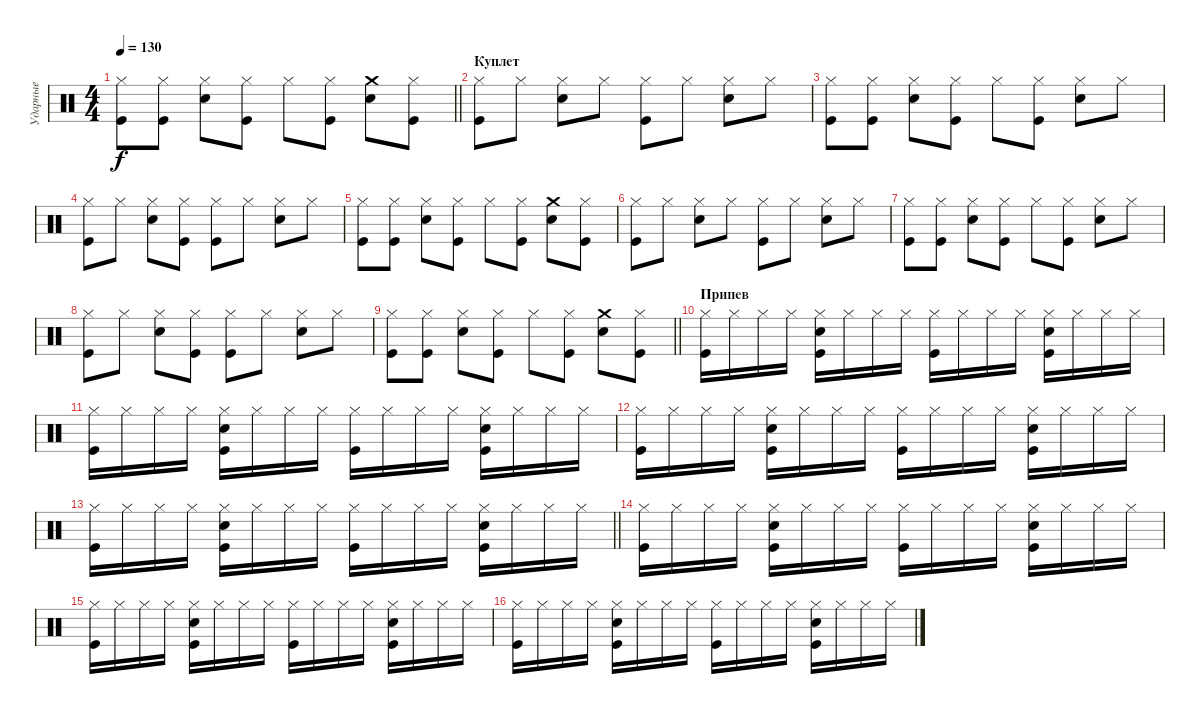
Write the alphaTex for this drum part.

\track ("Ударные" "Ударные") {instrument percussion}
\staff {score}
\articulation defaults
\ts (4 4)
\tempo 130
\clef neutral
\barLineRight lightlight
\ks c
("Hi-Hat (closed)" "Kick (hit)").8{dy f} ("Hi-Hat (closed)" "Kick (hit)").8 ("Hi-Hat (closed)" "Electric Snare (hit)").8 ("Hi-Hat (closed)" "Kick (hit)").8 "Hi-Hat (closed)".8 ("Hi-Hat (closed)" "Kick (hit)").8 ("Crash medium (hit)" "Electric Snare (hit)").8 ("Hi-Hat (closed)" "Kick (hit)").8 |
\section ("" "Куплет")
("Hi-Hat (closed)" "Kick (hit)").8 "Hi-Hat (closed)".8 ("Hi-Hat (closed)" "Electric Snare (hit)").8 "Hi-Hat (closed)".8 ("Hi-Hat (closed)" "Kick (hit)").8 "Hi-Hat (closed)".8 ("Hi-Hat (closed)" "Electric Snare (hit)").8 "Hi-Hat (closed)".8 |
("Hi-Hat (closed)" "Kick (hit)").8 ("Hi-Hat (closed)" "Kick (hit)").8 ("Hi-Hat (closed)" "Electric Snare (hit)").8 ("Hi-Hat (closed)" "Kick (hit)").8 "Hi-Hat (closed)".8 ("Hi-Hat (closed)" "Kick (hit)").8 ("Hi-Hat (closed)" "Electric Snare (hit)").8 "Hi-Hat (closed)".8 |
("Hi-Hat (closed)" "Kick (hit)").8 "Hi-Hat (closed)".8 ("Hi-Hat (closed)" "Electric Snare (hit)").8 ("Hi-Hat (closed)" "Kick (hit)").8 ("Hi-Hat (closed)" "Kick (hit)").8 "Hi-Hat (closed)".8 ("Hi-Hat (closed)" "Electric Snare (hit)").8 "Hi-Hat (closed)".8 |
("Hi-Hat (closed)" "Kick (hit)").8 ("Hi-Hat (closed)" "Kick (hit)").8 ("Hi-Hat (closed)" "Electric Snare (hit)").8 ("Hi-Hat (closed)" "Kick (hit)").8 "Hi-Hat (closed)".8 ("Hi-Hat (closed)" "Kick (hit)").8 ("Crash medium (hit)" "Electric Snare (hit)").8 ("Hi-Hat (closed)" "Kick (hit)").8 |
("Hi-Hat (closed)" "Kick (hit)").8 "Hi-Hat (closed)".8 ("Hi-Hat (closed)" "Electric Snare (hit)").8 "Hi-Hat (closed)".8 ("Hi-Hat (closed)" "Kick (hit)").8 "Hi-Hat (closed)".8 ("Hi-Hat (closed)" "Electric Snare (hit)").8 "Hi-Hat (closed)".8 |
("Hi-Hat (closed)" "Kick (hit)").8 ("Hi-Hat (closed)" "Kick (hit)").8 ("Hi-Hat (closed)" "Electric Snare (hit)").8 ("Hi-Hat (closed)" "Kick (hit)").8 "Hi-Hat (closed)".8 ("Hi-Hat (closed)" "Kick (hit)").8 ("Hi-Hat (closed)" "Electric Snare (hit)").8 "Hi-Hat (closed)".8 |
("Hi-Hat (closed)" "Kick (hit)").8 "Hi-Hat (closed)".8 ("Hi-Hat (closed)" "Electric Snare (hit)").8 ("Hi-Hat (closed)" "Kick (hit)").8 ("Hi-Hat (closed)" "Kick (hit)").8 "Hi-Hat (closed)".8 ("Hi-Hat (closed)" "Electric Snare (hit)").8 "Hi-Hat (closed)".8 |
\barLineRight lightlight
("Hi-Hat (closed)" "Kick (hit)").8 ("Hi-Hat (closed)" "Kick (hit)").8 ("Hi-Hat (closed)" "Electric Snare (hit)").8 ("Hi-Hat (closed)" "Kick (hit)").8 "Hi-Hat (closed)".8 ("Hi-Hat (closed)" "Kick (hit)").8 ("Crash medium (hit)" "Electric Snare (hit)").8 ("Hi-Hat (closed)" "Kick (hit)").8 |
\section ("" "Припев")
("Hi-Hat (closed)" "Kick (hit)").16 "Hi-Hat (closed)".16 "Hi-Hat (closed)".16 "Hi-Hat (closed)".16 ("Hi-Hat (closed)" "Kick (hit)" "Snare (hit) 2").16 "Hi-Hat (closed)".16 "Hi-Hat (closed)".16 "Hi-Hat (closed)".16 ("Hi-Hat (closed)" "Kick (hit)").16 "Hi-Hat (closed)".16 "Hi-Hat (closed)".16 "Hi-Hat (closed)".16 ("Hi-Hat (closed)" "Kick (hit)" "Snare (hit) 2").16 "Hi-Hat (closed)".16 "Hi-Hat (closed)".16 "Hi-Hat (closed)".16 |
("Hi-Hat (closed)" "Kick (hit)").16 "Hi-Hat (closed)".16 "Hi-Hat (closed)".16 "Hi-Hat (closed)".16 ("Hi-Hat (closed)" "Kick (hit)" "Snare (hit) 2").16 "Hi-Hat (closed)".16 "Hi-Hat (closed)".16 "Hi-Hat (closed)".16 ("Hi-Hat (closed)" "Kick (hit)").16 "Hi-Hat (closed)".16 "Hi-Hat (closed)".16 "Hi-Hat (closed)".16 ("Hi-Hat (closed)" "Kick (hit)" "Snare (hit) 2").16 "Hi-Hat (closed)".16 "Hi-Hat (closed)".16 "Hi-Hat (closed)".16 |
("Hi-Hat (closed)" "Kick (hit)").16 "Hi-Hat (closed)".16 "Hi-Hat (closed)".16 "Hi-Hat (closed)".16 ("Hi-Hat (closed)" "Kick (hit)" "Snare (hit) 2").16 "Hi-Hat (closed)".16 "Hi-Hat (closed)".16 "Hi-Hat (closed)".16 ("Hi-Hat (closed)" "Kick (hit)").16 "Hi-Hat (closed)".16 "Hi-Hat (closed)".16 "Hi-Hat (closed)".16 ("Hi-Hat (closed)" "Kick (hit)" "Snare (hit) 2").16 "Hi-Hat (closed)".16 "Hi-Hat (closed)".16 "Hi-Hat (closed)".16 |
\barLineRight lightlight
("Hi-Hat (closed)" "Kick (hit)").16 "Hi-Hat (closed)".16 "Hi-Hat (closed)".16 "Hi-Hat (closed)".16 ("Hi-Hat (closed)" "Kick (hit)" "Snare (hit) 2").16 "Hi-Hat (closed)".16 "Hi-Hat (closed)".16 "Hi-Hat (closed)".16 ("Hi-Hat (closed)" "Kick (hit)").16 "Hi-Hat (closed)".16 "Hi-Hat (closed)".16 "Hi-Hat (closed)".16 ("Hi-Hat (closed)" "Kick (hit)" "Snare (hit) 2").16 "Hi-Hat (closed)".16 "Hi-Hat (closed)".16 "Hi-Hat (closed)".16 |
("Hi-Hat (closed)" "Kick (hit)").16 "Hi-Hat (closed)".16 "Hi-Hat (closed)".16 "Hi-Hat (closed)".16 ("Hi-Hat (closed)" "Kick (hit)" "Snare (hit) 2").16 "Hi-Hat (closed)".16 "Hi-Hat (closed)".16 "Hi-Hat (closed)".16 ("Hi-Hat (closed)" "Kick (hit)").16 "Hi-Hat (closed)".16 "Hi-Hat (closed)".16 "Hi-Hat (closed)".16 ("Hi-Hat (closed)" "Kick (hit)" "Snare (hit) 2").16 "Hi-Hat (closed)".16 "Hi-Hat (closed)".16 "Hi-Hat (closed)".16 |
("Hi-Hat (closed)" "Kick (hit)").16 "Hi-Hat (closed)".16 "Hi-Hat (closed)".16 "Hi-Hat (closed)".16 ("Hi-Hat (closed)" "Kick (hit)" "Snare (hit) 2").16 "Hi-Hat (closed)".16 "Hi-Hat (closed)".16 "Hi-Hat (closed)".16 ("Hi-Hat (closed)" "Kick (hit)").16 "Hi-Hat (closed)".16 "Hi-Hat (closed)".16 "Hi-Hat (closed)".16 ("Hi-Hat (closed)" "Kick (hit)" "Snare (hit) 2").16 "Hi-Hat (closed)".16 "Hi-Hat (closed)".16 "Hi-Hat (closed)".16 |
("Hi-Hat (closed)" "Kick (hit)").16 "Hi-Hat (closed)".16 "Hi-Hat (closed)".16 "Hi-Hat (closed)".16 ("Hi-Hat (closed)" "Kick (hit)" "Snare (hit) 2").16 "Hi-Hat (closed)".16 "Hi-Hat (closed)".16 "Hi-Hat (closed)".16 ("Hi-Hat (closed)" "Kick (hit)").16 "Hi-Hat (closed)".16 "Hi-Hat (closed)".16 "Hi-Hat (closed)".16 ("Hi-Hat (closed)" "Kick (hit)" "Snare (hit) 2").16 "Hi-Hat (closed)".16 "Hi-Hat (closed)".16 "Hi-Hat (closed)".16
